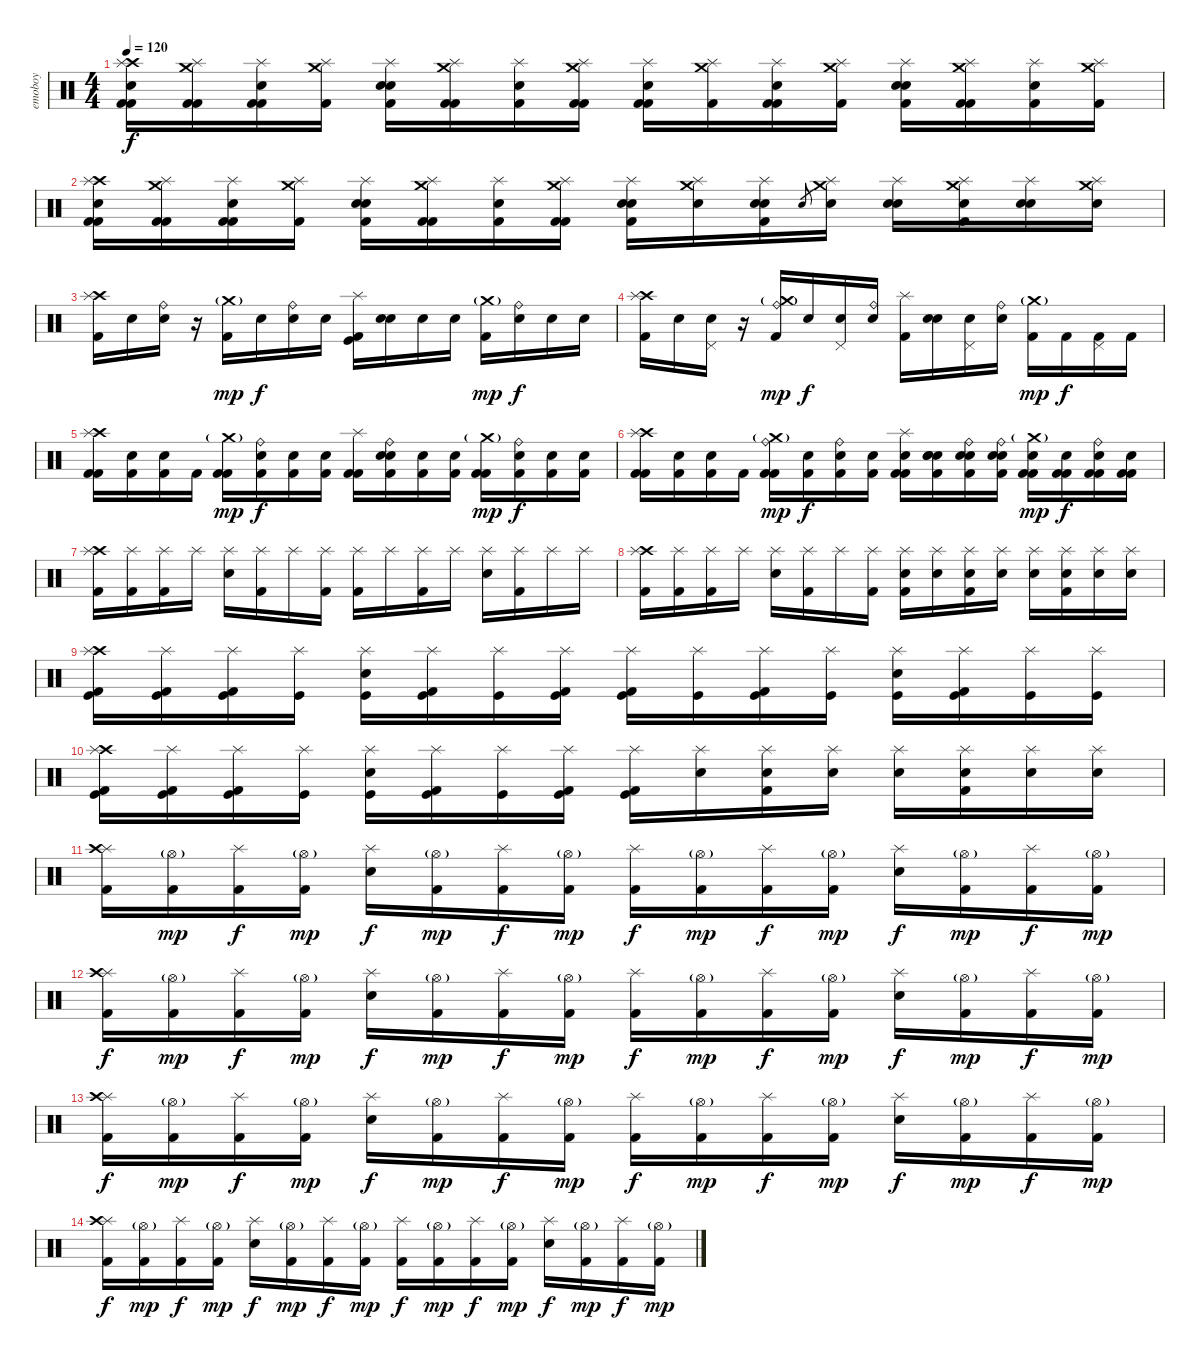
\track ("emoboy" "emoboy") {instrument percussion}
\staff {score}
\articulation defaults
\ts (4 4)
\tempo 120
\clef neutral
\ks c
("Electric Snare (hit)" "Crash high (hit)" "Splash (hit)" "Kick (hit) 2" "Kick (hit) 2").16{dy f} ("Crash medium (hit)" "Splash (hit)" "Kick (hit) 2" "Kick (hit) 2").16 ("Electric Snare (hit)" "Splash (hit)" "Kick (hit) 2" "Kick (hit) 2").16 ("Crash medium (hit)" "Splash (hit)" "Kick (hit) 2").16 ("Electric Snare (hit)" "Splash (hit)" "Electric Snare (hit)" "Kick (hit) 2").16 ("Crash medium (hit)" "Splash (hit)" "Kick (hit) 2" "Kick (hit) 2").16 ("Electric Snare (hit)" "Splash (hit)" "Kick (hit) 2").16 ("Crash medium (hit)" "Splash (hit)" "Kick (hit) 2" "Kick (hit) 2").16 ("Electric Snare (hit)" "Splash (hit)" "Kick (hit) 2" "Kick (hit) 2").16 ("Crash medium (hit)" "Splash (hit)" "Kick (hit) 2").16 ("Electric Snare (hit)" "Splash (hit)" "Kick (hit) 2" "Kick (hit) 2").16 ("Crash medium (hit)" "Splash (hit)" "Kick (hit) 2").16 ("Electric Snare (hit)" "Splash (hit)" "Electric Snare (hit)" "Kick (hit) 2").16 ("Crash medium (hit)" "Splash (hit)" "Kick (hit) 2" "Kick (hit) 2").16 ("Electric Snare (hit)" "Splash (hit)" "Kick (hit) 2").16 ("Crash medium (hit)" "Splash (hit)" "Kick (hit) 2").16 |
("Electric Snare (hit)" "Crash high (hit)" "Splash (hit)" "Kick (hit) 2" "Kick (hit) 2").16 ("Crash medium (hit)" "Splash (hit)" "Kick (hit) 2" "Kick (hit) 2").16 ("Electric Snare (hit)" "Splash (hit)" "Kick (hit) 2" "Kick (hit) 2").16 ("Crash medium (hit)" "Splash (hit)" "Kick (hit) 2").16 ("Electric Snare (hit)" "Splash (hit)" "Electric Snare (hit)" "Kick (hit) 2").16 ("Crash medium (hit)" "Splash (hit)" "Kick (hit) 2" "Kick (hit) 2").16 ("Electric Snare (hit)" "Splash (hit)" "Kick (hit) 2").16 ("Crash medium (hit)" "Splash (hit)" "Kick (hit) 2" "Kick (hit) 2").16 ("Electric Snare (hit)" "Splash (hit)" "Kick (hit) 2" "Electric Snare (hit)").16 ("Crash medium (hit)" "Splash (hit)" "Electric Snare (hit)").16 ("Electric Snare (hit)" "Splash (hit)" "Kick (hit) 2" "Snare (hit)").16 "Electric Snare (hit)".8{gr} ("Crash medium (hit)" "Splash (hit)" "Electric Snare (hit)").16 ("Electric Snare (hit)" "Splash (hit)" "Electric Snare (hit)").16 ("Crash medium (hit)" "Splash (hit)" "Kick (hit) 2" "Electric Snare (hit)").16 ("Electric Snare (hit)" "Splash (hit)" "Electric Snare (hit)").16 ("Crash medium (hit)" "Splash (hit)" "Electric Snare (hit)").16 |
("Crash high (hit)" "Splash (hit)" "Kick (hit) 2").16 "Snare (hit)".16 ("Snare (hit)" "Ride (bell)").16 r.16 ("Crash medium (hit)"{g} "Kick (hit) 2").16{dy mp} "Snare (hit)".16{dy f} ("Snare (hit)" "Ride (bell)").16 "Snare (hit)".16 ("Splash (hit)" "Kick (hit) 2" "Kick (hit)").16 ("Snare (hit)" "Snare (hit)").16 "Snare (hit)".16 "Snare (hit)".16 ("Crash medium (hit)"{g} "Kick (hit) 2").16{dy mp} ("Ride (bell)" "Snare (hit)").16{dy f} "Snare (hit)".16 "Snare (hit)".16 |
("Crash high (hit)" "Splash (hit)" "Kick (hit) 2").16 "Snare (hit)".16 ("Pedal Hi-Hat (hit)" "Snare (hit)").16 r.16 ("Crash medium (hit)"{g} "Kick (hit) 2" "Ride (bell)").16{dy mp} "Snare (hit)".16{dy f} ("Pedal Hi-Hat (hit)" "Snare (hit)").16 ("Ride (bell)" "Snare (hit)").16 ("Splash (hit)" "Kick (hit) 2").16 ("Snare (hit)" "Snare (hit)").16 ("Pedal Hi-Hat (hit)" "Snare (hit)").16 ("Ride (bell)" "Snare (hit)").16 ("Crash medium (hit)"{g} "Kick (hit) 2").16{dy mp} "Kick (hit) 2".16{dy f} ("Pedal Hi-Hat (hit)" "Kick (hit) 2").16 "Kick (hit) 2".16 |
("Crash high (hit)" "Splash (hit)" "Kick (hit) 2" "Kick (hit) 2").16 ("Snare (hit)" "Kick (hit) 2").16 ("Snare (hit)" "Kick (hit) 2").16 "Kick (hit) 2".16 ("Crash medium (hit)"{g} "Kick (hit) 2" "Kick (hit) 2").16{dy mp} ("Ride (bell)" "Snare (hit)" "Kick (hit) 2").16{dy f} ("Snare (hit)" "Kick (hit) 2").16 ("Snare (hit)" "Kick (hit) 2").16 ("Splash (hit)" "Kick (hit) 2" "Kick (hit) 2").16 ("Ride (bell)" "Snare (hit)" "Snare (hit)" "Kick (hit) 2").16 ("Snare (hit)" "Kick (hit) 2").16 ("Snare (hit)" "Kick (hit) 2").16 ("Crash medium (hit)"{g} "Kick (hit) 2" "Kick (hit) 2").16{dy mp} ("Ride (bell)" "Snare (hit)" "Kick (hit) 2").16{dy f} ("Snare (hit)" "Kick (hit) 2").16 ("Snare (hit)" "Kick (hit) 2").16 |
("Crash high (hit)" "Splash (hit)" "Kick (hit) 2" "Kick (hit) 2").16 ("Snare (hit)" "Kick (hit) 2").16 ("Snare (hit)" "Kick (hit) 2").16 "Kick (hit) 2".16 ("Ride (bell)" "Crash medium (hit)"{g} "Kick (hit) 2" "Kick (hit) 2").16{dy mp} ("Snare (hit)" "Kick (hit) 2").16{dy f} ("Ride (bell)" "Snare (hit)" "Kick (hit) 2").16 ("Snare (hit)" "Kick (hit) 2").16 ("Splash (hit)" "Kick (hit) 2" "Electric Snare (hit)" "Kick (hit) 2").16 ("Snare (hit)" "Snare (hit)" "Electric Snare (hit)" "Kick (hit) 2").16 ("Ride (bell)" "Snare (hit)" "Electric Snare (hit)" "Kick (hit) 2").16 ("Ride (bell)" "Snare (hit)" "Electric Snare (hit)" "Kick (hit) 2").16 ("Crash medium (hit)"{g} "Kick (hit) 2" "Electric Snare (hit)" "Kick (hit) 2").16{dy mp} ("Kick (hit) 2" "Electric Snare (hit)" "Kick (hit) 2").16{dy f} ("Ride (bell)" "Kick (hit) 2" "Electric Snare (hit)" "Kick (hit) 2").16 ("Kick (hit) 2" "Electric Snare (hit)" "Kick (hit) 2").16 |
("Crash high (hit)" "Splash (hit)" "Kick (hit) 2").16 ("Splash (hit)" "Kick (hit) 2").16 ("Splash (hit)" "Kick (hit) 2").16 "Splash (hit)".16 ("Splash (hit)" "Electric Snare (hit)").16 ("Splash (hit)" "Kick (hit) 2").16 "Splash (hit)".16 ("Splash (hit)" "Kick (hit) 2").16 ("Splash (hit)" "Kick (hit) 2").16 "Splash (hit)".16 ("Splash (hit)" "Kick (hit) 2").16 "Splash (hit)".16 ("Splash (hit)" "Electric Snare (hit)").16 ("Splash (hit)" "Kick (hit) 2").16 "Splash (hit)".16 "Splash (hit)".16 |
("Crash high (hit)" "Splash (hit)" "Kick (hit) 2").16 ("Splash (hit)" "Kick (hit) 2").16 ("Splash (hit)" "Kick (hit) 2").16 "Splash (hit)".16 ("Splash (hit)" "Electric Snare (hit)").16 ("Splash (hit)" "Kick (hit) 2").16 "Splash (hit)".16 ("Splash (hit)" "Kick (hit) 2").16 ("Splash (hit)" "Kick (hit) 2" "Electric Snare (hit)").16 ("Splash (hit)" "Electric Snare (hit)").16 ("Splash (hit)" "Kick (hit) 2" "Snare (hit)").16 ("Splash (hit)" "Electric Snare (hit)").16 ("Splash (hit)" "Electric Snare (hit)").16 ("Splash (hit)" "Kick (hit) 2" "Electric Snare (hit)").16 ("Splash (hit)" "Electric Snare (hit)").16 ("Splash (hit)" "Electric Snare (hit)").16 |
("Crash high (hit)" "Splash (hit)" "Kick (hit) 2" "Kick (hit)").16 ("Splash (hit)" "Kick (hit) 2" "Kick (hit)").16 ("Splash (hit)" "Kick (hit) 2" "Kick (hit)").16 ("Splash (hit)" "Kick (hit)").16 ("Splash (hit)" "Electric Snare (hit)" "Kick (hit)").16 ("Splash (hit)" "Kick (hit) 2" "Kick (hit)").16 ("Splash (hit)" "Kick (hit)").16 ("Splash (hit)" "Kick (hit) 2" "Kick (hit)").16 ("Splash (hit)" "Kick (hit) 2" "Kick (hit)").16 ("Splash (hit)" "Kick (hit)").16 ("Splash (hit)" "Kick (hit) 2" "Kick (hit)").16 ("Splash (hit)" "Kick (hit)").16 ("Splash (hit)" "Electric Snare (hit)" "Kick (hit)").16 ("Splash (hit)" "Kick (hit) 2" "Kick (hit)").16 ("Splash (hit)" "Kick (hit)").16 ("Splash (hit)" "Kick (hit)").16 |
("Crash high (hit)" "Splash (hit)" "Kick (hit) 2" "Kick (hit)").16 ("Splash (hit)" "Kick (hit) 2" "Kick (hit)").16 ("Splash (hit)" "Kick (hit) 2" "Kick (hit)").16 ("Splash (hit)" "Kick (hit)").16 ("Splash (hit)" "Electric Snare (hit)" "Kick (hit)").16 ("Splash (hit)" "Kick (hit) 2" "Kick (hit)").16 ("Splash (hit)" "Kick (hit)").16 ("Splash (hit)" "Kick (hit) 2" "Kick (hit)").16 ("Splash (hit)" "Kick (hit) 2" "Kick (hit)").16 ("Splash (hit)" "Electric Snare (hit)").16 ("Splash (hit)" "Kick (hit) 2" "Snare (hit)").16 ("Splash (hit)" "Electric Snare (hit)").16 ("Splash (hit)" "Electric Snare (hit)").16 ("Splash (hit)" "Kick (hit) 2" "Electric Snare (hit)").16 ("Splash (hit)" "Electric Snare (hit)").16 ("Splash (hit)" "Electric Snare (hit)").16 |
("Splash (hit)" "Crash high (hit)" "Kick (hit) 2").16 ("Hi-Hat (open)"{g} "Kick (hit) 2").16{dy mp} ("Splash (hit)" "Kick (hit) 2").16{dy f} ("Hi-Hat (open)"{g} "Kick (hit) 2").16{dy mp} ("Splash (hit)" "Electric Snare (hit)").16{dy f} ("Hi-Hat (open)"{g} "Kick (hit) 2").16{dy mp} ("Splash (hit)" "Kick (hit) 2").16{dy f} ("Hi-Hat (open)"{g} "Kick (hit) 2").16{dy mp} ("Splash (hit)" "Kick (hit) 2").16{dy f} ("Hi-Hat (open)"{g} "Kick (hit) 2").16{dy mp} ("Splash (hit)" "Kick (hit) 2").16{dy f} ("Hi-Hat (open)"{g} "Kick (hit) 2").16{dy mp} ("Splash (hit)" "Electric Snare (hit)").16{dy f} ("Hi-Hat (open)"{g} "Kick (hit) 2").16{dy mp} ("Splash (hit)" "Kick (hit) 2").16{dy f} ("Hi-Hat (open)"{g} "Kick (hit) 2").16{dy mp} |
("Splash (hit)" "Crash high (hit)" "Kick (hit) 2").16{dy f} ("Hi-Hat (open)"{g} "Kick (hit) 2").16{dy mp} ("Splash (hit)" "Kick (hit) 2").16{dy f} ("Hi-Hat (open)"{g} "Kick (hit) 2").16{dy mp} ("Splash (hit)" "Electric Snare (hit)").16{dy f} ("Hi-Hat (open)"{g} "Kick (hit) 2").16{dy mp} ("Splash (hit)" "Kick (hit) 2").16{dy f} ("Hi-Hat (open)"{g} "Kick (hit) 2").16{dy mp} ("Splash (hit)" "Kick (hit) 2").16{dy f} ("Hi-Hat (open)"{g} "Kick (hit) 2").16{dy mp} ("Splash (hit)" "Kick (hit) 2").16{dy f} ("Hi-Hat (open)"{g} "Kick (hit) 2").16{dy mp} ("Splash (hit)" "Electric Snare (hit)").16{dy f} ("Hi-Hat (open)"{g} "Kick (hit) 2").16{dy mp} ("Splash (hit)" "Kick (hit) 2").16{dy f} ("Hi-Hat (open)"{g} "Kick (hit) 2").16{dy mp} |
("Splash (hit)" "Crash high (hit)" "Kick (hit) 2").16{dy f} ("Hi-Hat (open)"{g} "Kick (hit) 2").16{dy mp} ("Splash (hit)" "Kick (hit) 2").16{dy f} ("Hi-Hat (open)"{g} "Kick (hit) 2").16{dy mp} ("Splash (hit)" "Electric Snare (hit)").16{dy f} ("Hi-Hat (open)"{g} "Kick (hit) 2").16{dy mp} ("Splash (hit)" "Kick (hit) 2").16{dy f} ("Hi-Hat (open)"{g} "Kick (hit) 2").16{dy mp} ("Splash (hit)" "Kick (hit) 2").16{dy f} ("Hi-Hat (open)"{g} "Kick (hit) 2").16{dy mp} ("Splash (hit)" "Kick (hit) 2").16{dy f} ("Hi-Hat (open)"{g} "Kick (hit) 2").16{dy mp} ("Splash (hit)" "Electric Snare (hit)").16{dy f} ("Hi-Hat (open)"{g} "Kick (hit) 2").16{dy mp} ("Splash (hit)" "Kick (hit) 2").16{dy f} ("Hi-Hat (open)"{g} "Kick (hit) 2").16{dy mp} |
("Splash (hit)" "Crash high (hit)" "Kick (hit) 2").16{dy f} ("Hi-Hat (open)"{g} "Kick (hit) 2").16{dy mp} ("Splash (hit)" "Kick (hit) 2").16{dy f} ("Hi-Hat (open)"{g} "Kick (hit) 2").16{dy mp} ("Splash (hit)" "Electric Snare (hit)").16{dy f} ("Hi-Hat (open)"{g} "Kick (hit) 2").16{dy mp} ("Splash (hit)" "Kick (hit) 2").16{dy f} ("Hi-Hat (open)"{g} "Kick (hit) 2").16{dy mp} ("Splash (hit)" "Kick (hit) 2").16{dy f} ("Hi-Hat (open)"{g} "Kick (hit) 2").16{dy mp} ("Splash (hit)" "Kick (hit) 2").16{dy f} ("Hi-Hat (open)"{g} "Kick (hit) 2").16{dy mp} ("Splash (hit)" "Electric Snare (hit)").16{dy f} ("Hi-Hat (open)"{g} "Kick (hit) 2").16{dy mp} ("Splash (hit)" "Kick (hit) 2").16{dy f} ("Hi-Hat (open)"{g} "Kick (hit) 2").16{dy mp}
